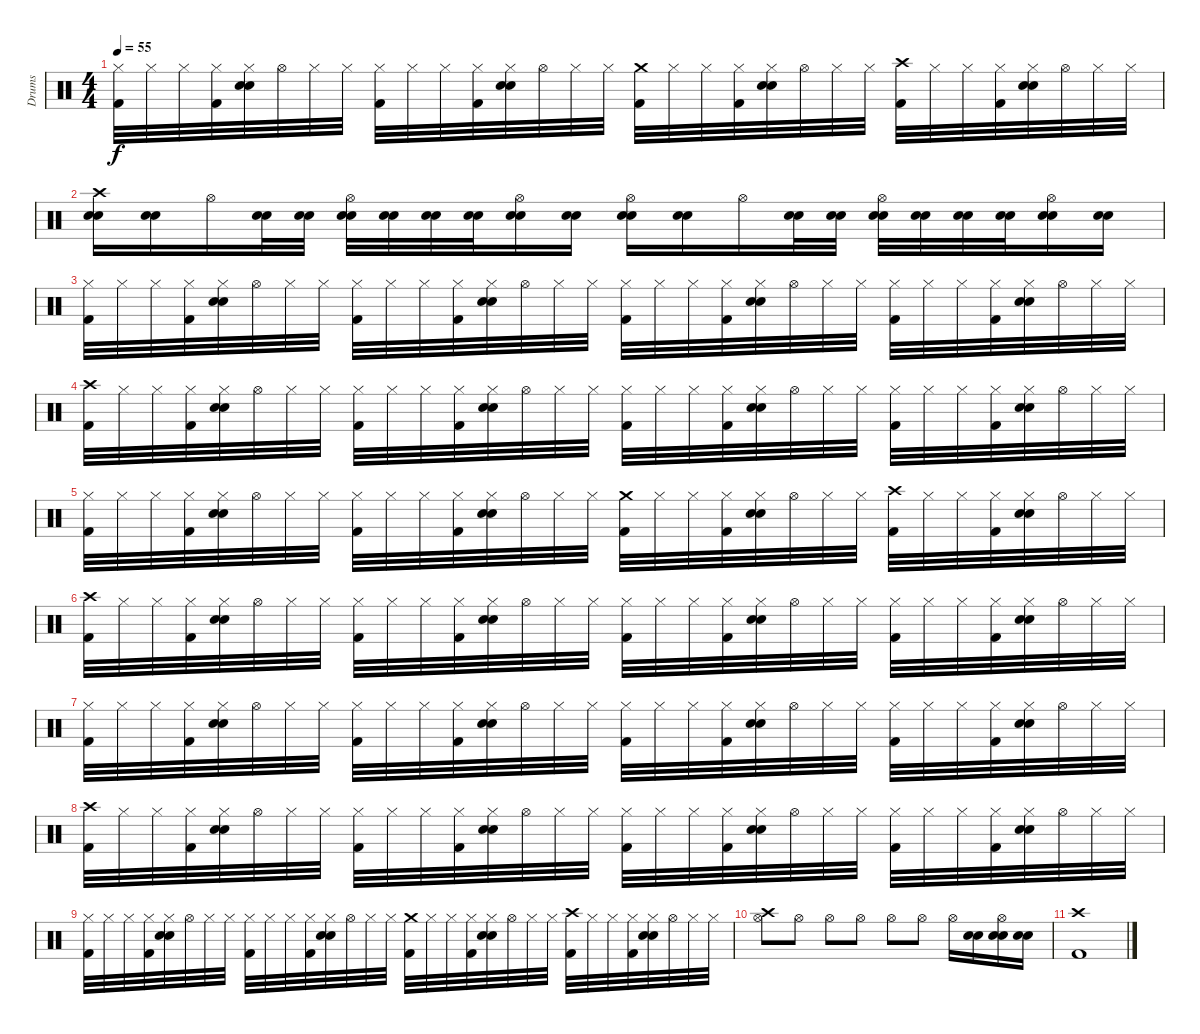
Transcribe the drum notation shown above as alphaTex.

\track ("Drums" "Drums") {instrument percussion}
\staff {score}
\articulation defaults
\ts (4 4)
\tempo 55
\clef neutral
\ks c
("Hi-Hat (closed)" "Kick (hit) 2").32{dy f} "Hi-Hat (closed)".32 "Hi-Hat (closed)".32 ("Hi-Hat (closed)" "Kick (hit) 2").32 ("Hi-Hat (closed)" "Snare (hit) 2" "Electric Snare (hit)").32 "Hi-Hat (open)".32 "Hi-Hat (closed)".32 "Hi-Hat (closed)".32 ("Hi-Hat (closed)" "Kick (hit) 2").32 "Hi-Hat (closed)".32 "Hi-Hat (closed)".32 ("Hi-Hat (closed)" "Kick (hit) 2").32 ("Hi-Hat (closed)" "Snare (hit) 2" "Electric Snare (hit)").32 "Hi-Hat (open)".32 "Hi-Hat (closed)".32 "Hi-Hat (closed)".32 ("Crash medium (hit)" "Kick (hit) 2").32 "Hi-Hat (closed)".32 "Hi-Hat (closed)".32 ("Hi-Hat (closed)" "Kick (hit) 2").32 ("Hi-Hat (closed)" "Snare (hit) 2" "Electric Snare (hit)").32 "Hi-Hat (open)".32 "Hi-Hat (closed)".32 "Hi-Hat (closed)".32 ("Crash high (hit)" "Kick (hit) 2").32 "Hi-Hat (closed)".32 "Hi-Hat (closed)".32 ("Hi-Hat (closed)" "Kick (hit) 2").32 ("Hi-Hat (closed)" "Snare (hit) 2" "Electric Snare (hit)").32 "Hi-Hat (open)".32 "Hi-Hat (closed)".32 "Hi-Hat (closed)".32 |
("Crash high (hit)" "Electric Snare (hit)" "Snare (hit) 2").16 ("Electric Snare (hit)" "Snare (hit) 2").16 "Hi-Hat (open)".16 ("Electric Snare (hit)" "Snare (hit) 2").32 ("Electric Snare (hit)" "Snare (hit) 2").32 ("Hi-Hat (open)" "Electric Snare (hit)" "Snare (hit) 2").32 ("Electric Snare (hit)" "Snare (hit) 2").32 ("Electric Snare (hit)" "Snare (hit) 2").32 ("Electric Snare (hit)" "Snare (hit) 2").32 ("Hi-Hat (open)" "Electric Snare (hit)" "Snare (hit) 2").16 ("Electric Snare (hit)" "Snare (hit) 2").16 ("Hi-Hat (open)" "Electric Snare (hit)" "Snare (hit) 2").16 ("Electric Snare (hit)" "Snare (hit) 2").16 "Hi-Hat (open)".16 ("Electric Snare (hit)" "Snare (hit) 2").32 ("Electric Snare (hit)" "Snare (hit) 2").32 ("Hi-Hat (open)" "Electric Snare (hit)" "Snare (hit) 2").32 ("Electric Snare (hit)" "Snare (hit) 2").32 ("Electric Snare (hit)" "Snare (hit) 2").32 ("Electric Snare (hit)" "Snare (hit) 2").32 ("Hi-Hat (open)" "Electric Snare (hit)" "Snare (hit) 2").16 ("Electric Snare (hit)" "Snare (hit) 2").16 |
("Hi-Hat (closed)" "Kick (hit) 2").32 "Hi-Hat (closed)".32 "Hi-Hat (closed)".32 ("Hi-Hat (closed)" "Kick (hit) 2").32 ("Hi-Hat (closed)" "Snare (hit) 2" "Electric Snare (hit)").32 "Hi-Hat (open)".32 "Hi-Hat (closed)".32 "Hi-Hat (closed)".32 ("Hi-Hat (closed)" "Kick (hit) 2").32 "Hi-Hat (closed)".32 "Hi-Hat (closed)".32 ("Hi-Hat (closed)" "Kick (hit) 2").32 ("Hi-Hat (closed)" "Snare (hit) 2" "Electric Snare (hit)").32 "Hi-Hat (open)".32 "Hi-Hat (closed)".32 "Hi-Hat (closed)".32 ("Hi-Hat (closed)" "Kick (hit) 2").32 "Hi-Hat (closed)".32 "Hi-Hat (closed)".32 ("Hi-Hat (closed)" "Kick (hit) 2").32 ("Hi-Hat (closed)" "Snare (hit) 2" "Electric Snare (hit)").32 "Hi-Hat (open)".32 "Hi-Hat (closed)".32 "Hi-Hat (closed)".32 ("Hi-Hat (closed)" "Kick (hit) 2").32 "Hi-Hat (closed)".32 "Hi-Hat (closed)".32 ("Hi-Hat (closed)" "Kick (hit) 2").32 ("Hi-Hat (closed)" "Snare (hit) 2" "Electric Snare (hit)").32 "Hi-Hat (open)".32 "Hi-Hat (closed)".32 "Hi-Hat (closed)".32 |
("Crash high (hit)" "Kick (hit) 2").32 "Hi-Hat (closed)".32 "Hi-Hat (closed)".32 ("Hi-Hat (closed)" "Kick (hit) 2").32 ("Hi-Hat (closed)" "Snare (hit) 2" "Electric Snare (hit)").32 "Hi-Hat (open)".32 "Hi-Hat (closed)".32 "Hi-Hat (closed)".32 ("Hi-Hat (closed)" "Kick (hit) 2").32 "Hi-Hat (closed)".32 "Hi-Hat (closed)".32 ("Hi-Hat (closed)" "Kick (hit) 2").32 ("Hi-Hat (closed)" "Snare (hit) 2" "Electric Snare (hit)").32 "Hi-Hat (open)".32 "Hi-Hat (closed)".32 "Hi-Hat (closed)".32 ("Hi-Hat (closed)" "Kick (hit) 2").32 "Hi-Hat (closed)".32 "Hi-Hat (closed)".32 ("Hi-Hat (closed)" "Kick (hit) 2").32 ("Hi-Hat (closed)" "Snare (hit) 2" "Electric Snare (hit)").32 "Hi-Hat (open)".32 "Hi-Hat (closed)".32 "Hi-Hat (closed)".32 ("Hi-Hat (closed)" "Kick (hit) 2").32 "Hi-Hat (closed)".32 "Hi-Hat (closed)".32 ("Hi-Hat (closed)" "Kick (hit) 2").32 ("Hi-Hat (closed)" "Snare (hit) 2" "Electric Snare (hit)").32 "Hi-Hat (open)".32 "Hi-Hat (closed)".32 "Hi-Hat (closed)".32 |
("Hi-Hat (closed)" "Kick (hit) 2").32 "Hi-Hat (closed)".32 "Hi-Hat (closed)".32 ("Hi-Hat (closed)" "Kick (hit) 2").32 ("Hi-Hat (closed)" "Snare (hit) 2" "Electric Snare (hit)").32 "Hi-Hat (open)".32 "Hi-Hat (closed)".32 "Hi-Hat (closed)".32 ("Hi-Hat (closed)" "Kick (hit) 2").32 "Hi-Hat (closed)".32 "Hi-Hat (closed)".32 ("Hi-Hat (closed)" "Kick (hit) 2").32 ("Hi-Hat (closed)" "Snare (hit) 2" "Electric Snare (hit)").32 "Hi-Hat (open)".32 "Hi-Hat (closed)".32 "Hi-Hat (closed)".32 ("Crash medium (hit)" "Kick (hit) 2").32 "Hi-Hat (closed)".32 "Hi-Hat (closed)".32 ("Hi-Hat (closed)" "Kick (hit) 2").32 ("Hi-Hat (closed)" "Snare (hit) 2" "Electric Snare (hit)").32 "Hi-Hat (open)".32 "Hi-Hat (closed)".32 "Hi-Hat (closed)".32 ("Crash high (hit)" "Kick (hit) 2").32 "Hi-Hat (closed)".32 "Hi-Hat (closed)".32 ("Hi-Hat (closed)" "Kick (hit) 2").32 ("Hi-Hat (closed)" "Snare (hit) 2" "Electric Snare (hit)").32 "Hi-Hat (open)".32 "Hi-Hat (closed)".32 "Hi-Hat (closed)".32 |
("Crash high (hit)" "Kick (hit) 2").32 "Hi-Hat (closed)".32 "Hi-Hat (closed)".32 ("Hi-Hat (closed)" "Kick (hit) 2").32 ("Hi-Hat (closed)" "Snare (hit) 2" "Electric Snare (hit)").32 "Hi-Hat (open)".32 "Hi-Hat (closed)".32 "Hi-Hat (closed)".32 ("Hi-Hat (closed)" "Kick (hit) 2").32 "Hi-Hat (closed)".32 "Hi-Hat (closed)".32 ("Hi-Hat (closed)" "Kick (hit) 2").32 ("Hi-Hat (closed)" "Snare (hit) 2" "Electric Snare (hit)").32 "Hi-Hat (open)".32 "Hi-Hat (closed)".32 "Hi-Hat (closed)".32 ("Hi-Hat (closed)" "Kick (hit) 2").32 "Hi-Hat (closed)".32 "Hi-Hat (closed)".32 ("Hi-Hat (closed)" "Kick (hit) 2").32 ("Hi-Hat (closed)" "Snare (hit) 2" "Electric Snare (hit)").32 "Hi-Hat (open)".32 "Hi-Hat (closed)".32 "Hi-Hat (closed)".32 ("Hi-Hat (closed)" "Kick (hit) 2").32 "Hi-Hat (closed)".32 "Hi-Hat (closed)".32 ("Hi-Hat (closed)" "Kick (hit) 2").32 ("Hi-Hat (closed)" "Snare (hit) 2" "Electric Snare (hit)").32 "Hi-Hat (open)".32 "Hi-Hat (closed)".32 "Hi-Hat (closed)".32 |
("Hi-Hat (closed)" "Kick (hit) 2").32 "Hi-Hat (closed)".32 "Hi-Hat (closed)".32 ("Hi-Hat (closed)" "Kick (hit) 2").32 ("Hi-Hat (closed)" "Snare (hit) 2" "Electric Snare (hit)").32 "Hi-Hat (open)".32 "Hi-Hat (closed)".32 "Hi-Hat (closed)".32 ("Hi-Hat (closed)" "Kick (hit) 2").32 "Hi-Hat (closed)".32 "Hi-Hat (closed)".32 ("Hi-Hat (closed)" "Kick (hit) 2").32 ("Hi-Hat (closed)" "Snare (hit) 2" "Electric Snare (hit)").32 "Hi-Hat (open)".32 "Hi-Hat (closed)".32 "Hi-Hat (closed)".32 ("Hi-Hat (closed)" "Kick (hit) 2").32 "Hi-Hat (closed)".32 "Hi-Hat (closed)".32 ("Hi-Hat (closed)" "Kick (hit) 2").32 ("Hi-Hat (closed)" "Snare (hit) 2" "Electric Snare (hit)").32 "Hi-Hat (open)".32 "Hi-Hat (closed)".32 "Hi-Hat (closed)".32 ("Hi-Hat (closed)" "Kick (hit) 2").32 "Hi-Hat (closed)".32 "Hi-Hat (closed)".32 ("Hi-Hat (closed)" "Kick (hit) 2").32 ("Hi-Hat (closed)" "Snare (hit) 2" "Electric Snare (hit)").32 "Hi-Hat (open)".32 "Hi-Hat (closed)".32 "Hi-Hat (closed)".32 |
("Crash high (hit)" "Kick (hit) 2").32 "Hi-Hat (closed)".32 "Hi-Hat (closed)".32 ("Hi-Hat (closed)" "Kick (hit) 2").32 ("Hi-Hat (closed)" "Snare (hit) 2" "Electric Snare (hit)").32 "Hi-Hat (open)".32 "Hi-Hat (closed)".32 "Hi-Hat (closed)".32 ("Hi-Hat (closed)" "Kick (hit) 2").32 "Hi-Hat (closed)".32 "Hi-Hat (closed)".32 ("Hi-Hat (closed)" "Kick (hit) 2").32 ("Hi-Hat (closed)" "Snare (hit) 2" "Electric Snare (hit)").32 "Hi-Hat (open)".32 "Hi-Hat (closed)".32 "Hi-Hat (closed)".32 ("Hi-Hat (closed)" "Kick (hit) 2").32 "Hi-Hat (closed)".32 "Hi-Hat (closed)".32 ("Hi-Hat (closed)" "Kick (hit) 2").32 ("Hi-Hat (closed)" "Snare (hit) 2" "Electric Snare (hit)").32 "Hi-Hat (open)".32 "Hi-Hat (closed)".32 "Hi-Hat (closed)".32 ("Hi-Hat (closed)" "Kick (hit) 2").32 "Hi-Hat (closed)".32 "Hi-Hat (closed)".32 ("Hi-Hat (closed)" "Kick (hit) 2").32 ("Hi-Hat (closed)" "Snare (hit) 2" "Electric Snare (hit)").32 "Hi-Hat (open)".32 "Hi-Hat (closed)".32 "Hi-Hat (closed)".32 |
("Hi-Hat (closed)" "Kick (hit) 2").32 "Hi-Hat (closed)".32 "Hi-Hat (closed)".32 ("Hi-Hat (closed)" "Kick (hit) 2").32 ("Hi-Hat (closed)" "Snare (hit) 2" "Electric Snare (hit)").32 "Hi-Hat (open)".32 "Hi-Hat (closed)".32 "Hi-Hat (closed)".32 ("Hi-Hat (closed)" "Kick (hit) 2").32 "Hi-Hat (closed)".32 "Hi-Hat (closed)".32 ("Hi-Hat (closed)" "Kick (hit) 2").32 ("Hi-Hat (closed)" "Snare (hit) 2" "Electric Snare (hit)").32 "Hi-Hat (open)".32 "Hi-Hat (closed)".32 "Hi-Hat (closed)".32 ("Crash medium (hit)" "Kick (hit) 2").32 "Hi-Hat (closed)".32 "Hi-Hat (closed)".32 ("Hi-Hat (closed)" "Kick (hit) 2").32 ("Hi-Hat (closed)" "Snare (hit) 2" "Electric Snare (hit)").32 "Hi-Hat (open)".32 "Hi-Hat (closed)".32 "Hi-Hat (closed)".32 ("Crash high (hit)" "Kick (hit) 2").32 "Hi-Hat (closed)".32 "Hi-Hat (closed)".32 ("Hi-Hat (closed)" "Kick (hit) 2").32 ("Hi-Hat (closed)" "Snare (hit) 2" "Electric Snare (hit)").32 "Hi-Hat (open)".32 "Hi-Hat (closed)".32 "Hi-Hat (closed)".32 |
("Crash high (hit)" "Hi-Hat (open)").8 "Hi-Hat (open)".8 "Hi-Hat (open)".8 "Hi-Hat (open)".8 "Hi-Hat (open)".8 "Hi-Hat (open)".8 "Hi-Hat (open)".16 ("Electric Snare (hit)" "Snare (hit) 2").16 ("Hi-Hat (open)" "Electric Snare (hit)" "Snare (hit) 2").16 ("Electric Snare (hit)" "Snare (hit) 2").16 |
("Crash high (hit)" "Kick (hit) 2").1
